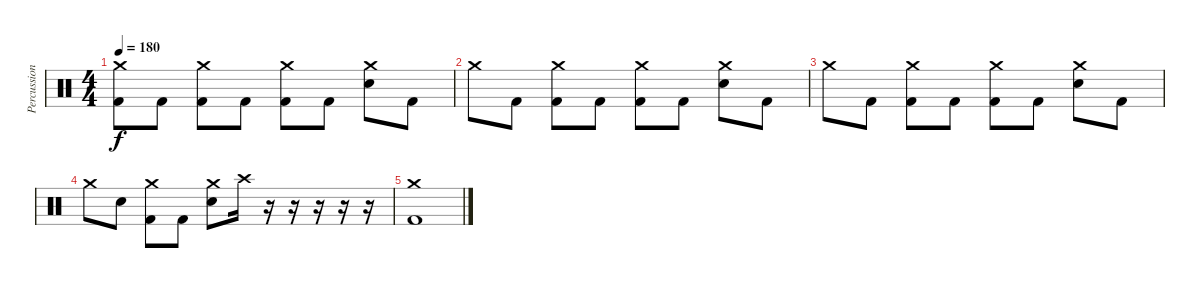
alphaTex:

\track ("Percussion" "Percussion") {instrument percussion}
\staff {score}
\articulation defaults
\ts (4 4)
\tempo 180
\clef neutral
\ks c
("Crash medium (hit)" "Kick (hit) 2").8{dy f} "Kick (hit) 2".8 ("Crash medium (hit)" "Kick (hit) 2").8 "Kick (hit) 2".8 ("Crash medium (hit)" "Kick (hit) 2").8 "Kick (hit) 2".8 ("Crash medium (hit)" "Snare (hit) 2").8 "Kick (hit) 2".8 |
"Crash medium (hit)".8 "Kick (hit) 2".8 ("Crash medium (hit)" "Kick (hit) 2").8 "Kick (hit) 2".8 ("Crash medium (hit)" "Kick (hit) 2").8 "Kick (hit) 2".8 ("Crash medium (hit)" "Snare (hit) 2").8 "Kick (hit) 2".8 |
"Crash medium (hit)".8 "Kick (hit) 2".8 ("Crash medium (hit)" "Kick (hit) 2").8 "Kick (hit) 2".8 ("Crash medium (hit)" "Kick (hit) 2").8 "Kick (hit) 2".8 ("Crash medium (hit)" "Snare (hit) 2").8 "Kick (hit) 2".8 |
"Crash medium (hit)".8 "Snare (hit) 2".8 ("Crash medium (hit)" "Kick (hit) 2").8 "Kick (hit) 2".8 ("Crash medium (hit)" "Snare (hit) 2").8 "Crash high (hit)".16 r.16 r.16 r.16 r.16 r.16 |
("Crash medium (hit)" "Kick (hit) 2").1
